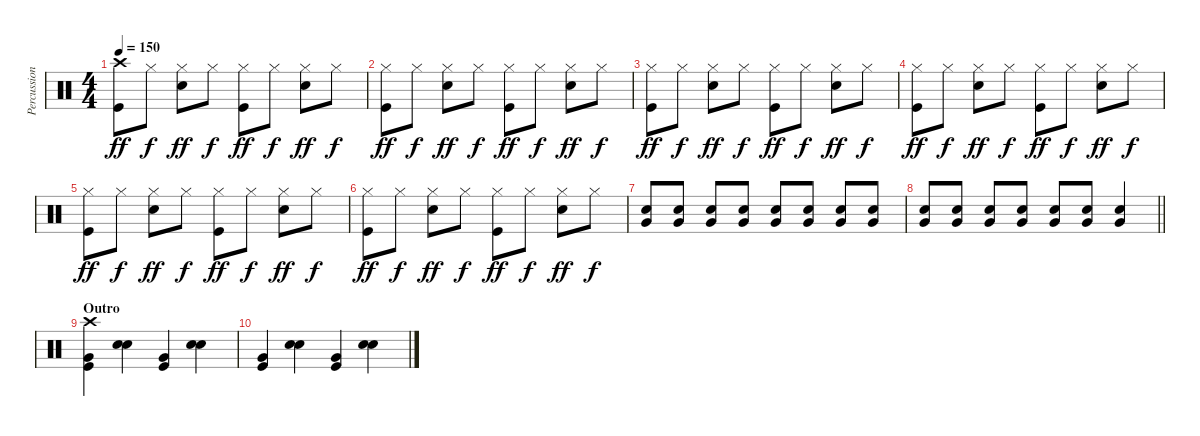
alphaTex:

\track ("Percussion" "Percussion") {instrument percussion}
\staff {score}
\articulation defaults
\ts (4 4)
\tempo 150
\clef neutral
\ks c
("Crash high (hit)" "Kick (hit)").8{dy ff} "Hi-Hat (closed)".8{dy f} ("Hi-Hat (closed)" "Snare (hit) 2").8{dy ff} "Hi-Hat (closed)".8{dy f} ("Hi-Hat (closed)" "Kick (hit)").8{dy ff} "Hi-Hat (closed)".8{dy f} ("Hi-Hat (closed)" "Snare (hit) 2").8{dy ff} "Hi-Hat (closed)".8{dy f} |
("Hi-Hat (closed)" "Kick (hit)").8{dy ff} "Hi-Hat (closed)".8{dy f} ("Hi-Hat (closed)" "Snare (hit) 2").8{dy ff} "Hi-Hat (closed)".8{dy f} ("Hi-Hat (closed)" "Kick (hit)").8{dy ff} "Hi-Hat (closed)".8{dy f} ("Hi-Hat (closed)" "Snare (hit) 2").8{dy ff} "Hi-Hat (closed)".8{dy f} |
("Hi-Hat (closed)" "Kick (hit)").8{dy ff} "Hi-Hat (closed)".8{dy f} ("Hi-Hat (closed)" "Snare (hit) 2").8{dy ff} "Hi-Hat (closed)".8{dy f} ("Hi-Hat (closed)" "Kick (hit)").8{dy ff} "Hi-Hat (closed)".8{dy f} ("Hi-Hat (closed)" "Snare (hit) 2").8{dy ff} "Hi-Hat (closed)".8{dy f} |
("Hi-Hat (closed)" "Kick (hit)").8{dy ff} "Hi-Hat (closed)".8{dy f} ("Hi-Hat (closed)" "Snare (hit) 2").8{dy ff} "Hi-Hat (closed)".8{dy f} ("Hi-Hat (closed)" "Kick (hit)").8{dy ff} "Hi-Hat (closed)".8{dy f} ("Hi-Hat (closed)" "Snare (hit) 2").8{dy ff} "Hi-Hat (closed)".8{dy f} |
("Hi-Hat (closed)" "Kick (hit)").8{dy ff} "Hi-Hat (closed)".8{dy f} ("Hi-Hat (closed)" "Snare (hit) 2").8{dy ff} "Hi-Hat (closed)".8{dy f} ("Hi-Hat (closed)" "Kick (hit)").8{dy ff} "Hi-Hat (closed)".8{dy f} ("Hi-Hat (closed)" "Snare (hit) 2").8{dy ff} "Hi-Hat (closed)".8{dy f} |
("Hi-Hat (closed)" "Kick (hit)").8{dy ff} "Hi-Hat (closed)".8{dy f} ("Hi-Hat (closed)" "Snare (hit) 2").8{dy ff} "Hi-Hat (closed)".8{dy f} ("Hi-Hat (closed)" "Kick (hit)").8{dy ff} "Hi-Hat (closed)".8{dy f} ("Hi-Hat (closed)" "Snare (hit) 2").8{dy ff} "Hi-Hat (closed)".8{dy f} |
("Snare (hit) 2" "Very Low Tom (hit)").8 ("Snare (hit) 2" "Very Low Tom (hit)").8 ("Snare (hit) 2" "Very Low Tom (hit)").8 ("Snare (hit) 2" "Very Low Tom (hit)").8 ("Snare (hit) 2" "Very Low Tom (hit)").8 ("Snare (hit) 2" "Very Low Tom (hit)").8 ("Snare (hit) 2" "Very Low Tom (hit)").8 ("Snare (hit) 2" "Very Low Tom (hit)").8 |
\barLineRight lightlight
("Snare (hit) 2" "Very Low Tom (hit)").8 ("Snare (hit) 2" "Very Low Tom (hit)").8 ("Snare (hit) 2" "Very Low Tom (hit)").8 ("Snare (hit) 2" "Very Low Tom (hit)").8 ("Snare (hit) 2" "Very Low Tom (hit)").8 ("Snare (hit) 2" "Very Low Tom (hit)").8 ("Snare (hit) 2" "Very Low Tom (hit)").4 |
\section ("" "Outro")
("Kick (hit)" "Very Low Tom (hit)" "Crash high (hit)").4 ("Snare (hit) 2" "Snare (hit) 2").4 ("Kick (hit)" "Very Low Tom (hit)").4 ("Snare (hit) 2" "Snare (hit) 2").4 |
("Kick (hit)" "Very Low Tom (hit)").4 ("Snare (hit) 2" "Snare (hit) 2").4 ("Kick (hit)" "Very Low Tom (hit)").4 ("Snare (hit) 2" "Snare (hit) 2").4
